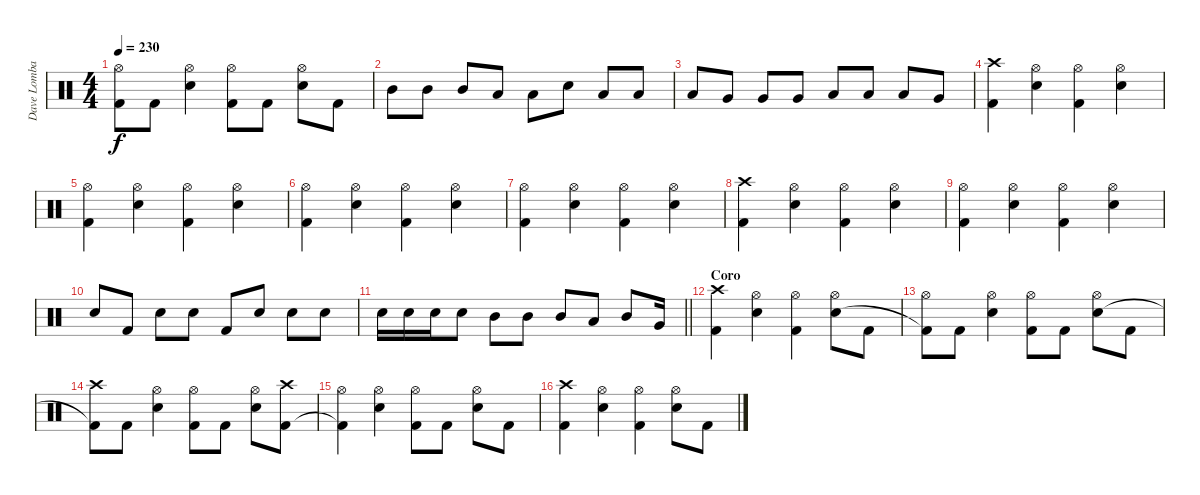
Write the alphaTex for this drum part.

\track ("Dave Lombardo" "Dave Lomba") {instrument percussion}
\staff {score}
\articulation defaults
\ts (4 4)
\tempo 230
\clef neutral
\ks c
("Hi-Hat (open)" "Kick (hit) 2"{t}).8{dy f} "Kick (hit) 2".8 ("Hi-Hat (open)" "Snare (hit) 2").4 ("Hi-Hat (open)" "Kick (hit) 2").8 "Kick (hit) 2".8 ("Hi-Hat (open)" "Snare (hit) 2").8 "Kick (hit) 2".8 |
"Mid Tom (hit)".8 "Mid Tom (hit)".8 "Mid Tom (hit)".8 "Low Tom (hit)".8 "Low Tom (hit)".8 "Snare (hit) 2".8 "Low Tom (hit)".8 "Low Tom (hit)".8 |
"Low Tom (hit)".8 "Very Low Tom (hit)".8 "Very Low Tom (hit)".8 "Very Low Tom (hit)".8 "Low Floor Tom (hit)".8 "Low Floor Tom (hit)".8 "Low Floor Tom (hit)".8 "Very Low Tom (hit)".8 |
("Crash high (hit)" "Kick (hit) 2").4 ("Hi-Hat (open)" "Snare (hit) 2").4 ("Hi-Hat (open)" "Kick (hit) 2").4 ("Hi-Hat (open)" "Snare (hit) 2").4 |
("Hi-Hat (open)" "Kick (hit) 2").4 ("Hi-Hat (open)" "Snare (hit) 2").4 ("Hi-Hat (open)" "Kick (hit) 2").4 ("Hi-Hat (open)" "Snare (hit) 2").4 |
("Hi-Hat (open)" "Kick (hit) 2").4 ("Hi-Hat (open)" "Snare (hit) 2").4 ("Hi-Hat (open)" "Kick (hit) 2").4 ("Hi-Hat (open)" "Snare (hit) 2").4 |
("Hi-Hat (open)" "Kick (hit) 2").4 ("Hi-Hat (open)" "Snare (hit) 2").4 ("Hi-Hat (open)" "Kick (hit) 2").4 ("Hi-Hat (open)" "Snare (hit) 2").4 |
("Crash high (hit)" "Kick (hit) 2").4 ("Hi-Hat (open)" "Snare (hit) 2").4 ("Hi-Hat (open)" "Kick (hit) 2").4 ("Hi-Hat (open)" "Snare (hit) 2").4 |
("Hi-Hat (open)" "Kick (hit) 2").4 ("Hi-Hat (open)" "Snare (hit) 2").4 ("Hi-Hat (open)" "Kick (hit) 2").4 ("Hi-Hat (open)" "Snare (hit) 2").4 |
"Snare (hit) 2".8 "Kick (hit) 2".8 "Snare (hit) 2".8 "Snare (hit) 2".8 "Kick (hit) 2".8 "Snare (hit) 2".8 "Snare (hit) 2".8 "Snare (hit) 2".8 |
\barLineRight lightlight "Snare (hit) 2".16 "Snare (hit) 2".16 "Snare (hit) 2".16 "Snare (hit) 2".8 "Mid Tom (hit)".8 "Mid Tom (hit)".8 "Mid Tom (hit)".8 "Low Tom (hit)".8 "Mid Tom (hit)".8 "Very Low Tom (hit)".16
|
\section ("" "Coro")
("Crash high (hit)" "Kick (hit) 2").4 ("Hi-Hat (open)" "Snare (hit) 2").4 ("Hi-Hat (open)" "Kick (hit) 2").4 ("Hi-Hat (open)" "Snare (hit) 2").8 "Kick (hit) 2".8 |
("Hi-Hat (open)" "Kick (hit) 2"{t}).8 "Kick (hit) 2".8 ("Hi-Hat (open)" "Snare (hit) 2").4 ("Hi-Hat (open)" "Kick (hit) 2").8 "Kick (hit) 2".8 ("Hi-Hat (open)" "Snare (hit) 2").8 "Kick (hit) 2".8 |
("Crash high (hit)" "Kick (hit) 2"{t}).8 "Kick (hit) 2".8 ("Hi-Hat (open)" "Snare (hit) 2").4 ("Hi-Hat (open)" "Kick (hit) 2").8 "Kick (hit) 2".8 ("Hi-Hat (open)" "Snare (hit) 2").8 ("Crash high (hit)" "Kick (hit) 2").8 |
("Hi-Hat (open)" "Kick (hit) 2"{t}).4 ("Hi-Hat (open)" "Snare (hit) 2").4 ("Hi-Hat (open)" "Kick (hit) 2").8 "Kick (hit) 2".8 ("Hi-Hat (open)" "Snare (hit) 2").8 "Kick (hit) 2".8 |
("Crash high (hit)" "Kick (hit) 2").4 ("Hi-Hat (open)" "Snare (hit) 2").4 ("Hi-Hat (open)" "Kick (hit) 2").4 ("Hi-Hat (open)" "Snare (hit) 2").8 "Kick (hit) 2".8
